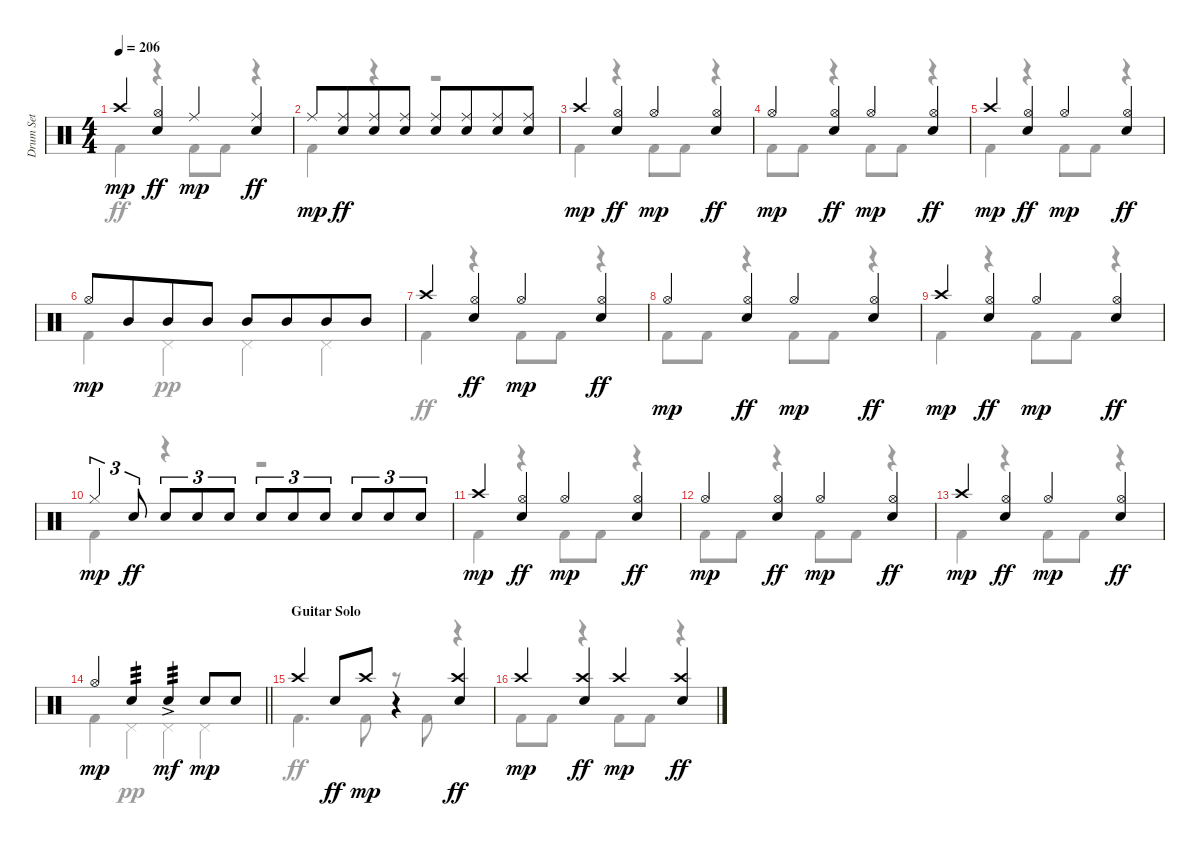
\track ("Drum Set" "Drum Set") {instrument percussion}
\staff {score}
\articulation defaults
\voice
\ts (4 4)
\tempo 206
\clef neutral
\ks c "Crash high (hit)".4{dy mp}
("Hi-Hat (open)" "Electric Snare (hit)").4{dy ff} "Ride (middle)".4{dy mp} ("Ride (middle)" "Electric Snare (hit)").4{dy ff} |
"Ride (middle)".8{dy mp} ("Ride (middle)" "Electric Snare (hit)").8{dy ff beam merge} ("Ride (middle)" "Electric Snare (hit)").8 ("Ride (middle)" "Electric Snare (hit)").8{beam split} ("Ride (middle)" "Electric Snare (hit)").8 ("Ride (middle)" "Electric Snare (hit)").8{beam merge} ("Ride (middle)" "Electric Snare (hit)").8 ("Ride (middle)" "Electric Snare (hit)").8 |
"Crash high (hit)".4{dy mp} ("Hi-Hat (open)" "Electric Snare (hit)").4{dy ff} "Hi-Hat (open)".4{dy mp} ("Hi-Hat (open)" "Electric Snare (hit)").4{dy ff} |
"Hi-Hat (open)".4{dy mp} ("Hi-Hat (open)" "Electric Snare (hit)").4{dy ff} "Hi-Hat (open)".4{dy mp} ("Hi-Hat (open)" "Electric Snare (hit)").4{dy ff} |
"Crash high (hit)".4{dy mp} ("Hi-Hat (open)" "Electric Snare (hit)").4{dy ff} "Hi-Hat (open)".4{dy mp} ("Hi-Hat (open)" "Electric Snare (hit)").4{dy ff} |
"Hi-Hat (open)".8{dy mp} "Mid Tom (hit)".8{beam merge} "Mid Tom (hit)".8 "Mid Tom (hit)".8 "Mid Tom (hit)".8 "Mid Tom (hit)".8{beam merge} "Mid Tom (hit)".8 "Mid Tom (hit)".8 |
"Crash high (hit)".4 ("Hi-Hat (open)" "Electric Snare (hit)").4{dy ff} "Hi-Hat (open)".4{dy mp} ("Hi-Hat (open)" "Electric Snare (hit)").4{dy ff} |
"Hi-Hat (open)".4{dy mp} ("Hi-Hat (open)" "Electric Snare (hit)").4{dy ff} "Hi-Hat (open)".4{dy mp} ("Hi-Hat (open)" "Electric Snare (hit)").4{dy ff} |
"Crash high (hit)".4{dy mp} ("Hi-Hat (open)" "Electric Snare (hit)").4{dy ff} "Hi-Hat (open)".4{dy mp} ("Hi-Hat (open)" "Electric Snare (hit)").4{dy ff} |
"Hi-Hat (closed)".4{tu (3 2) dy mp} "Electric Snare (hit)".8{tu (3 2) dy ff} "Electric Snare (hit)".8{tu (3 2)} "Electric Snare (hit)".8{tu (3 2)} "Electric Snare (hit)".8{tu (3 2)} "Electric Snare (hit)".8{tu (3 2)} "Electric Snare (hit)".8{tu (3 2)} "Electric Snare (hit)".8{tu (3 2)} "Electric Snare (hit)".8{tu (3 2)} "Electric Snare (hit)".8{tu (3 2)} "Electric Snare (hit)".8{tu (3 2)} |
"Crash high (hit)".4{dy mp} ("Hi-Hat (open)" "Electric Snare (hit)").4{dy ff} "Hi-Hat (open)".4{dy mp} ("Hi-Hat (open)" "Electric Snare (hit)").4{dy ff} |
"Hi-Hat (open)".4{dy mp} ("Hi-Hat (open)" "Electric Snare (hit)").4{dy ff} "Hi-Hat (open)".4{dy mp} ("Hi-Hat (open)" "Electric Snare (hit)").4{dy ff} |
"Crash high (hit)".4{dy mp} ("Hi-Hat (open)" "Electric Snare (hit)").4{dy ff} "Hi-Hat (open)".4{dy mp} ("Hi-Hat (open)" "Electric Snare (hit)").4{dy ff} |
\barLineRight lightlight "Hi-Hat (open)".4{dy mp} "Electric Snare (hit)".4{tp 3} "Electric Snare (hit)"{ac}.4{tp 3 dy mf} "Electric Snare (hit)".8{dy mp} "Electric Snare (hit)".8
|
\section ("" "Guitar Solo")
"Crash high (hit)".4 "Electric Snare (hit)".8{dy ff} "Crash high (hit)".8{dy mp} r.4 ("Crash high (hit)" "Electric Snare (hit)").4{dy ff} |
"Crash high (hit)".4{dy mp} ("Crash high (hit)" "Electric Snare (hit)").4{dy ff} "Crash high (hit)".4{dy mp} ("Crash high (hit)" "Electric Snare (hit)").4{dy ff}
\voice
\clef neutral
\ottava regular
\simile none
\ks c "Kick (hit) 2".4{dy ff}
r.4 "Kick (hit) 2".8 "Kick (hit) 2".8 r.4 |
"Kick (hit) 2".4 r.4 r.2 |
"Kick (hit) 2".4 r.4 "Kick (hit) 2".8 "Kick (hit) 2".8 r.4 |
"Kick (hit) 2".8 "Kick (hit) 2".8 r.4 "Kick (hit) 2".8 "Kick (hit) 2".8 r.4 |
"Kick (hit) 2".4 r.4 "Kick (hit) 2".8 "Kick (hit) 2".8 r.4 |
"Kick (hit) 2".4 "Pedal Hi-Hat (hit)".4{dy pp} "Pedal Hi-Hat (hit)".4 "Pedal Hi-Hat (hit)".4 |
"Kick (hit) 2".4{dy ff} r.4 "Kick (hit) 2".8 "Kick (hit) 2".8 r.4 |
"Kick (hit) 2".8 "Kick (hit) 2".8 r.4 "Kick (hit) 2".8 "Kick (hit) 2".8 r.4 |
"Kick (hit) 2".4 r.4 "Kick (hit) 2".8 "Kick (hit) 2".8 r.4 |
"Kick (hit) 2".4 r.4 r.2 |
"Kick (hit) 2".4 r.4 "Kick (hit) 2".8 "Kick (hit) 2".8 r.4 |
"Kick (hit) 2".8 "Kick (hit) 2".8 r.4 "Kick (hit) 2".8 "Kick (hit) 2".8 r.4 |
"Kick (hit) 2".4 r.4 "Kick (hit) 2".8 "Kick (hit) 2".8 r.4 |
\barLineRight lightlight "Kick (hit) 2".4 "Pedal Hi-Hat (hit)".4{dy pp} "Pedal Hi-Hat (hit)".4 "Pedal Hi-Hat (hit)".4
|
"Kick (hit) 2".4{d dy ff} "Kick (hit) 2".8 r.8 "Kick (hit) 2".8 r.4 |
"Kick (hit) 2".8 "Kick (hit) 2".8 r.4 "Kick (hit) 2".8 "Kick (hit) 2".8 r.4
